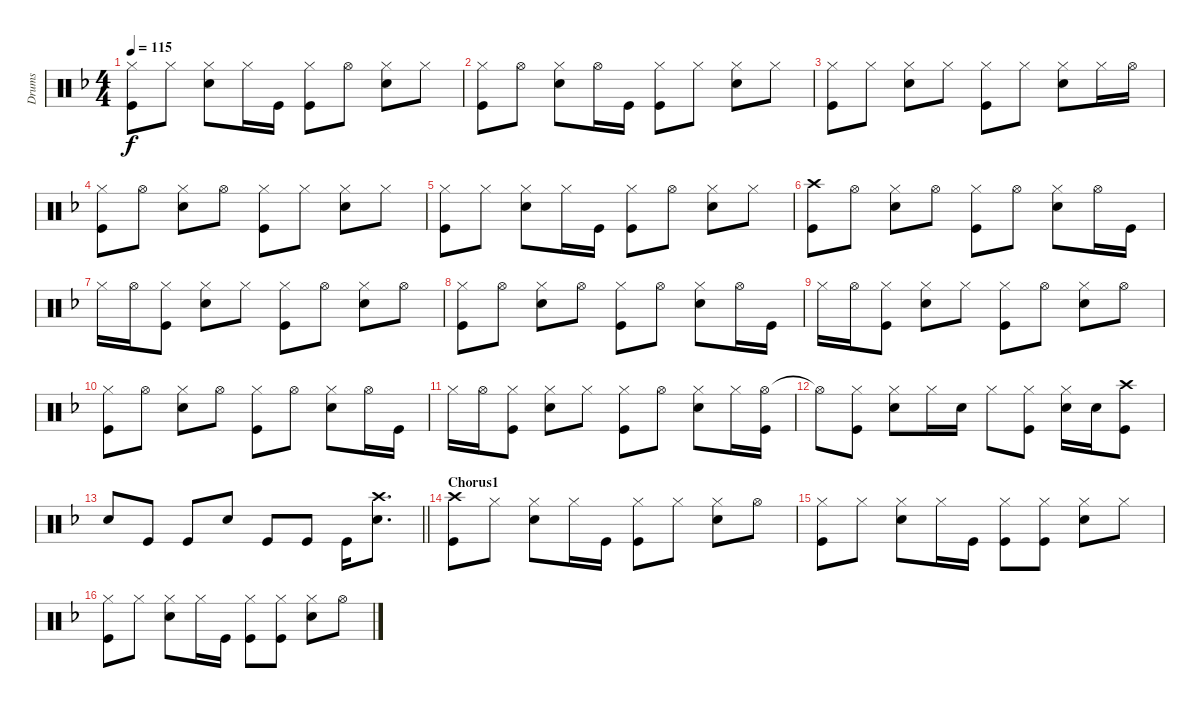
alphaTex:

\track ("Drums" "Drums") {instrument percussion}
\staff {score}
\articulation defaults
\ts (4 4)
\tempo 115
\clef neutral
\ks f
("Hi-Hat (closed)" "Kick (hit)").8{dy f} "Hi-Hat (closed)".8 ("Hi-Hat (closed)" "Snare (hit) 2").8 "Hi-Hat (closed)".16 "Kick (hit)".16 ("Hi-Hat (closed)" "Kick (hit)").8 "Hi-Hat (open)".8 ("Hi-Hat (closed)" "Snare (hit) 2").8 "Hi-Hat (closed)".8 |
("Hi-Hat (closed)" "Kick (hit)").8 "Hi-Hat (open)".8 ("Hi-Hat (closed)" "Snare (hit) 2").8 "Hi-Hat (open)".16 "Kick (hit)".16 ("Hi-Hat (closed)" "Kick (hit)").8 "Hi-Hat (closed)".8 ("Hi-Hat (closed)" "Snare (hit) 2").8 "Hi-Hat (closed)".8 |
("Hi-Hat (closed)" "Kick (hit)").8 "Hi-Hat (closed)".8 ("Hi-Hat (closed)" "Snare (hit) 2").8 "Hi-Hat (closed)".8 ("Hi-Hat (closed)" "Kick (hit)").8 "Hi-Hat (closed)".8 ("Hi-Hat (closed)" "Snare (hit) 2").8 "Hi-Hat (closed)".16 "Hi-Hat (open)".16 |
("Hi-Hat (closed)" "Kick (hit)").8 "Hi-Hat (open)".8 ("Hi-Hat (closed)" "Snare (hit) 2").8 "Hi-Hat (open)".8 ("Hi-Hat (closed)" "Kick (hit)").8 "Hi-Hat (closed)".8 ("Hi-Hat (closed)" "Snare (hit) 2").8 "Hi-Hat (closed)".8 |
("Hi-Hat (closed)" "Kick (hit)").8 "Hi-Hat (closed)".8 ("Hi-Hat (closed)" "Snare (hit) 2").8 "Hi-Hat (closed)".16 "Kick (hit)".16 ("Hi-Hat (closed)" "Kick (hit)").8 "Hi-Hat (open)".8 ("Hi-Hat (closed)" "Snare (hit) 2").8 "Hi-Hat (closed)".8 |
("Crash high (hit)" "Kick (hit)").8 "Hi-Hat (open)".8 ("Snare (hit) 2" "Hi-Hat (closed)").8 "Hi-Hat (open)".8 ("Hi-Hat (closed)" "Kick (hit)").8 "Hi-Hat (open)".8 ("Hi-Hat (closed)" "Snare (hit) 2").8 "Hi-Hat (open)".16 "Kick (hit)".16 |
"Hi-Hat (closed)".16 "Hi-Hat (open)".16 ("Hi-Hat (closed)" "Kick (hit)").8 ("Hi-Hat (closed)" "Snare (hit) 2").8 "Hi-Hat (closed)".8 ("Hi-Hat (closed)" "Kick (hit)").8 "Hi-Hat (open)".8 ("Hi-Hat (closed)" "Snare (hit) 2").8 "Hi-Hat (open)".8 |
("Hi-Hat (closed)" "Kick (hit)").8 "Hi-Hat (open)".8 ("Snare (hit) 2" "Hi-Hat (closed)").8 "Hi-Hat (open)".8 ("Hi-Hat (closed)" "Kick (hit)").8 "Hi-Hat (open)".8 ("Hi-Hat (closed)" "Snare (hit) 2").8 "Hi-Hat (open)".16 "Kick (hit)".16 |
"Hi-Hat (closed)".16 "Hi-Hat (open)".16 ("Hi-Hat (closed)" "Kick (hit)").8 ("Hi-Hat (closed)" "Snare (hit) 2").8 "Hi-Hat (closed)".8 ("Hi-Hat (closed)" "Kick (hit)").8 "Hi-Hat (open)".8 ("Hi-Hat (closed)" "Snare (hit) 2").8 "Hi-Hat (open)".8 |
("Hi-Hat (closed)" "Kick (hit)").8 "Hi-Hat (open)".8 ("Snare (hit) 2" "Hi-Hat (closed)").8 "Hi-Hat (open)".8 ("Hi-Hat (closed)" "Kick (hit)").8 "Hi-Hat (open)".8 ("Hi-Hat (closed)" "Snare (hit) 2").8 "Hi-Hat (open)".16 "Kick (hit)".16 |
"Hi-Hat (closed)".16 "Hi-Hat (open)".16 ("Hi-Hat (closed)" "Kick (hit)").8 ("Hi-Hat (closed)" "Snare (hit) 2").8 "Hi-Hat (closed)".8 ("Hi-Hat (closed)" "Kick (hit)").8 "Hi-Hat (open)".8 ("Hi-Hat (closed)" "Snare (hit) 2").8 "Hi-Hat (closed)".16 ("Hi-Hat (open)" "Kick (hit)").16 |
"Hi-Hat (open)"{t}.8 ("Kick (hit)" "Hi-Hat (closed)").8 ("Hi-Hat (closed)" "Snare (hit) 2").8 "Hi-Hat (closed)".16 "Snare (hit) 2".16 "Hi-Hat (closed)".8 ("Hi-Hat (closed)" "Kick (hit)").8 ("Hi-Hat (closed)" "Snare (hit) 2").16 "Snare (hit) 2".16 ("Crash high (hit)" "Kick (hit)").8 |
\barLineRight lightlight "Snare (hit) 2".8 "Kick (hit)".8 "Kick (hit)".8 "Snare (hit) 2".8 "Kick (hit)".8 "Kick (hit)".8 "Kick (hit)".16
("Snare (hit) 2" "Crash high (hit)").8{d} |
\section ("" "Chorus1")
("Crash high (hit)" "Kick (hit)").8 "Hi-Hat (closed)".8 ("Snare (hit) 2" "Hi-Hat (closed)").8 "Hi-Hat (closed)".16 "Kick (hit)".16 ("Hi-Hat (closed)" "Kick (hit)").8 "Hi-Hat (closed)".8 ("Hi-Hat (closed)" "Snare (hit) 2").8 "Hi-Hat (open)".8 |
("Hi-Hat (closed)" "Kick (hit)").8 "Hi-Hat (closed)".8 ("Hi-Hat (closed)" "Snare (hit) 2").8 "Hi-Hat (closed)".16 "Kick (hit)".16 ("Hi-Hat (closed)" "Kick (hit)").8 ("Hi-Hat (closed)" "Kick (hit)").8 ("Hi-Hat (closed)" "Snare (hit) 2").8 "Hi-Hat (closed)".8 |
("Hi-Hat (closed)" "Kick (hit)").8 "Hi-Hat (closed)".8 ("Hi-Hat (closed)" "Snare (hit) 2").8 "Hi-Hat (closed)".16 "Kick (hit)".16 ("Hi-Hat (closed)" "Kick (hit)").8 ("Hi-Hat (closed)" "Kick (hit)").8 ("Hi-Hat (closed)" "Snare (hit) 2").8 "Hi-Hat (open)".8
